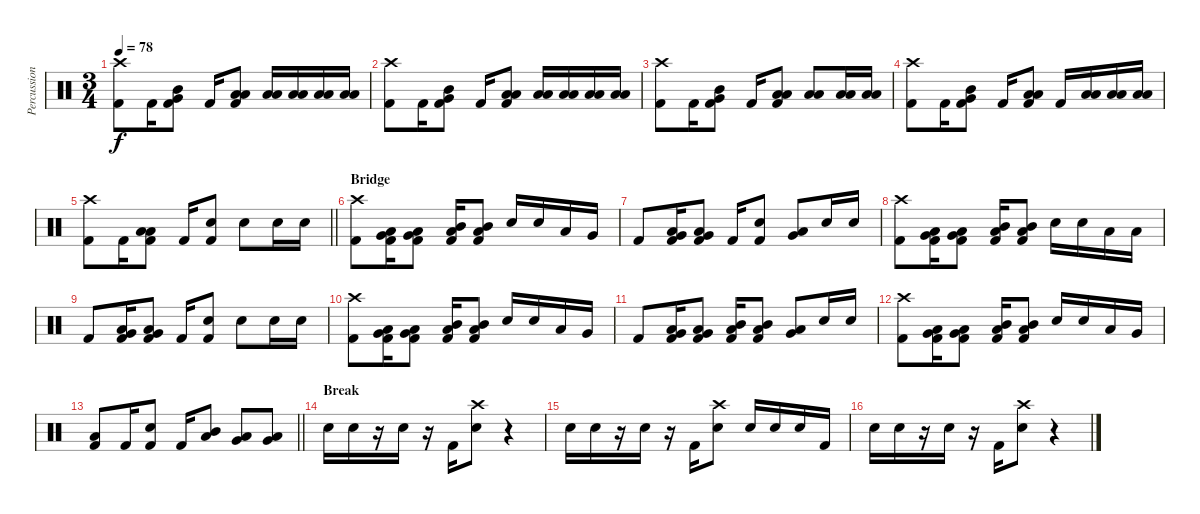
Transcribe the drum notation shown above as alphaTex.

\track ("Percussion" "Percussion") {instrument percussion}
\staff {score}
\articulation defaults
\ts (3 4)
\tempo 78
\clef neutral
\ks c
("Crash high (hit)" "Kick (hit) 2").8{dy f} "Kick (hit) 2".16 ("Mid Tom (hit)" "Very Low Tom (hit)" "Kick (hit) 2").8 "Kick (hit) 2".16 ("Low Tom (hit)" "Low Floor Tom (hit)" "Kick (hit) 2").8 ("Low Tom (hit)" "Low Floor Tom (hit)").16 ("Low Tom (hit)" "Low Floor Tom (hit)").16 ("Low Tom (hit)" "Low Floor Tom (hit)").16 ("Low Tom (hit)" "Low Floor Tom (hit)").16 |
("Crash high (hit)" "Kick (hit) 2").8 "Kick (hit) 2".16 ("Mid Tom (hit)" "Very Low Tom (hit)" "Kick (hit) 2").8 "Kick (hit) 2".16 ("Low Tom (hit)" "Low Floor Tom (hit)" "Kick (hit) 2").8 ("Low Tom (hit)" "Low Floor Tom (hit)").16 ("Low Tom (hit)" "Low Floor Tom (hit)").16 ("Low Tom (hit)" "Low Floor Tom (hit)").16 ("Low Tom (hit)" "Low Floor Tom (hit)").16 |
("Crash high (hit)" "Kick (hit) 2").8 "Kick (hit) 2".16 ("Mid Tom (hit)" "Very Low Tom (hit)" "Kick (hit) 2").8 "Kick (hit) 2".16 ("Low Tom (hit)" "Low Floor Tom (hit)" "Kick (hit) 2").8 ("Low Tom (hit)" "Low Floor Tom (hit)").8 ("Low Tom (hit)" "Low Floor Tom (hit)").16 ("Low Tom (hit)" "Low Floor Tom (hit)").16 |
("Crash high (hit)" "Kick (hit) 2").8 "Kick (hit) 2".16 ("Mid Tom (hit)" "Very Low Tom (hit)" "Kick (hit) 2").8 "Kick (hit) 2".16 ("Low Tom (hit)" "Low Floor Tom (hit)" "Kick (hit) 2").8 "Kick (hit) 2".16 ("Low Tom (hit)" "Low Floor Tom (hit)").16 ("Low Tom (hit)" "Low Floor Tom (hit)").16 ("Low Tom (hit)" "Low Floor Tom (hit)").16 |
\barLineRight lightlight
("Crash high (hit)" "Kick (hit) 2").8 "Kick (hit) 2".16 ("Low Tom (hit)" "Low Floor Tom (hit)" "Kick (hit) 2").8 "Kick (hit) 2".16 ("Electric Snare (hit)" "Kick (hit) 2").8 "Electric Snare (hit)".8 "Electric Snare (hit)".16 "Electric Snare (hit)".16 |
\section ("" "Bridge")
("Crash high (hit)" "Kick (hit) 2").8 ("Low Tom (hit)" "Very Low Tom (hit)" "Kick (hit) 2").16 ("Low Tom (hit)" "Very Low Tom (hit)" "Kick (hit) 2").8 ("Mid Tom (hit)" "Low Tom (hit)" "Kick (hit) 2").16 ("Mid Tom (hit)" "Low Tom (hit)" "Kick (hit) 2").8 "Electric Snare (hit)".16 "Electric Snare (hit)".16 "Low Tom (hit)".16 "Very Low Tom (hit)".16 |
"Kick (hit) 2".8 ("Low Tom (hit)" "Very Low Tom (hit)" "Kick (hit) 2").16 ("Low Tom (hit)" "Very Low Tom (hit)" "Kick (hit) 2").8 "Kick (hit) 2".16 ("Electric Snare (hit)" "Kick (hit) 2").8 ("Low Tom (hit)" "Very Low Tom (hit)").8 "Electric Snare (hit)".16 "Electric Snare (hit)".16 |
("Crash high (hit)" "Kick (hit) 2").8 ("Low Tom (hit)" "Very Low Tom (hit)" "Kick (hit) 2").16 ("Low Tom (hit)" "Very Low Tom (hit)" "Kick (hit) 2").8 ("Mid Tom (hit)" "Low Tom (hit)" "Kick (hit) 2").16 ("Mid Tom (hit)" "Low Tom (hit)" "Kick (hit) 2").8 "Electric Snare (hit)".16 "Electric Snare (hit)".16 "Low Tom (hit)".16 "Low Floor Tom (hit)".16 |
"Kick (hit) 2".8 ("Low Tom (hit)" "Very Low Tom (hit)" "Kick (hit) 2").16 ("Low Tom (hit)" "Very Low Tom (hit)" "Kick (hit) 2").8 "Kick (hit) 2".16 ("Electric Snare (hit)" "Kick (hit) 2").8 "Electric Snare (hit)".8 "Electric Snare (hit)".16 "Electric Snare (hit)".16 |
("Crash high (hit)" "Kick (hit) 2").8 ("Low Tom (hit)" "Very Low Tom (hit)" "Kick (hit) 2").16 ("Low Tom (hit)" "Very Low Tom (hit)" "Kick (hit) 2").8 ("Mid Tom (hit)" "Low Tom (hit)" "Kick (hit) 2").16 ("Mid Tom (hit)" "Low Tom (hit)" "Kick (hit) 2").8 "Electric Snare (hit)".16 "Electric Snare (hit)".16 "Low Tom (hit)".16 "Very Low Tom (hit)".16 |
"Kick (hit) 2".8 ("Low Tom (hit)" "Very Low Tom (hit)" "Kick (hit) 2").16 ("Low Tom (hit)" "Very Low Tom (hit)" "Kick (hit) 2").8 ("Mid Tom (hit)" "Low Tom (hit)" "Kick (hit) 2").16 ("Mid Tom (hit)" "Low Tom (hit)" "Kick (hit) 2").8 ("Low Tom (hit)" "Very Low Tom (hit)").8 "Electric Snare (hit)".16 "Electric Snare (hit)".16 |
("Crash high (hit)" "Kick (hit) 2").8 ("Low Tom (hit)" "Very Low Tom (hit)" "Kick (hit) 2").16 ("Low Tom (hit)" "Very Low Tom (hit)" "Kick (hit) 2").8 ("Mid Tom (hit)" "Low Tom (hit)" "Kick (hit) 2").16 ("Mid Tom (hit)" "Low Tom (hit)" "Kick (hit) 2").8 "Electric Snare (hit)".16 "Electric Snare (hit)".16 "Low Tom (hit)".16 "Very Low Tom (hit)".16 |
\barLineRight lightlight
("Low Floor Tom (hit)" "Kick (hit) 2").8 "Kick (hit) 2".16 ("Electric Snare (hit)" "Kick (hit) 2").8 "Kick (hit) 2".16 ("Mid Tom (hit)" "Low Tom (hit)").8 ("Low Tom (hit)" "Very Low Tom (hit)").8 ("Very Low Tom (hit)" "Low Floor Tom (hit)").8 |
\section ("" "Break")
"Electric Snare (hit)".16 "Electric Snare (hit)".16 r.16 "Electric Snare (hit)".16 r.16 "Kick (hit) 2".16 ("Crash high (hit)" "Electric Snare (hit)").8 r.4 |
"Electric Snare (hit)".16 "Electric Snare (hit)".16 r.16 "Electric Snare (hit)".16 r.16 "Kick (hit) 2".16 ("Crash high (hit)" "Electric Snare (hit)").8 "Electric Snare (hit)".16 "Electric Snare (hit)".16 "Electric Snare (hit)".16 "Kick (hit) 2".16 |
"Electric Snare (hit)".16 "Electric Snare (hit)".16 r.16 "Electric Snare (hit)".16 r.16 "Kick (hit) 2".16 ("Crash high (hit)" "Electric Snare (hit)").8 r.4
